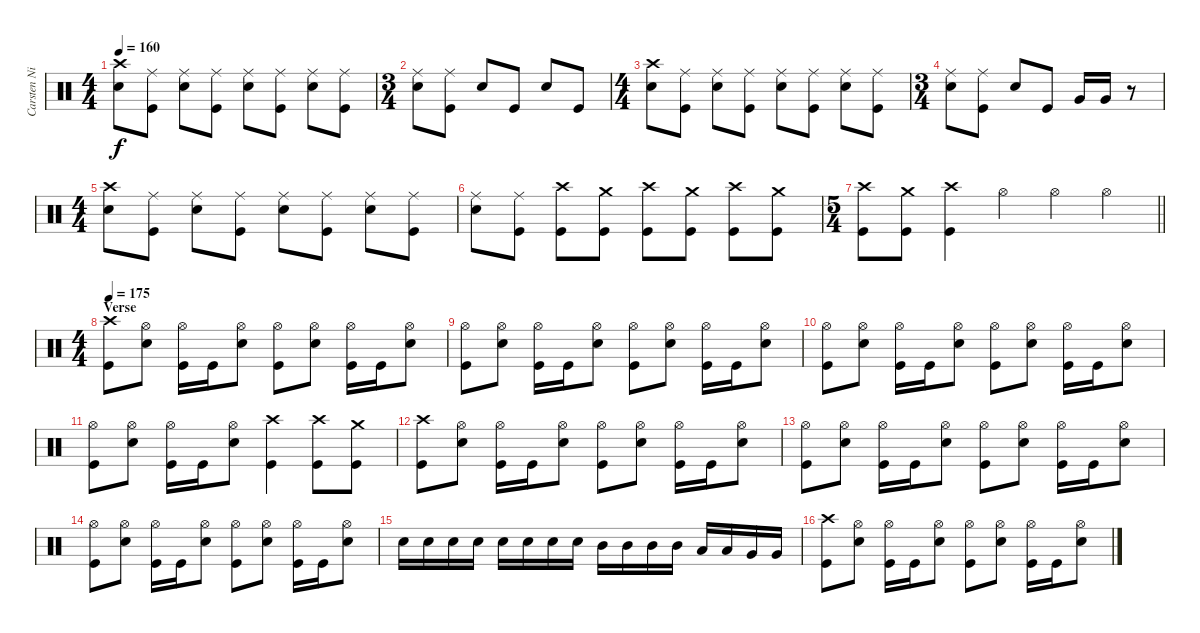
\track ("Carsten Nielsen" "Carsten Ni") {instrument percussion}
\staff {score}
\articulation defaults
\ts (4 4)
\tempo 160
\clef neutral
\ks c
("Crash high (hit)" "Electric Snare (hit)").8{dy f} ("Ride (middle)" "Kick (hit)").8 ("Ride (middle)" "Electric Snare (hit)").8 ("Ride (middle)" "Kick (hit)").8 ("Ride (middle)" "Electric Snare (hit)").8 ("Ride (middle)" "Kick (hit)").8 ("Ride (middle)" "Electric Snare (hit)").8 ("Ride (middle)" "Kick (hit)").8 |
\ts (3 4)
("Ride (middle)" "Electric Snare (hit)").8 ("Ride (middle)" "Kick (hit)").8 "Electric Snare (hit)".8 "Kick (hit)".8 "Electric Snare (hit)".8 "Kick (hit)".8 |
\ts (4 4)
("Crash high (hit)" "Electric Snare (hit)").8 ("Ride (middle)" "Kick (hit)").8 ("Ride (middle)" "Electric Snare (hit)").8 ("Ride (middle)" "Kick (hit)").8 ("Ride (middle)" "Electric Snare (hit)").8 ("Ride (middle)" "Kick (hit)").8 ("Ride (middle)" "Electric Snare (hit)").8 ("Ride (middle)" "Kick (hit)").8 |
\ts (3 4)
("Ride (middle)" "Electric Snare (hit)").8 ("Ride (middle)" "Kick (hit)").8 "Electric Snare (hit)".8 "Kick (hit)".8 "Very Low Tom (hit)".16 "Very Low Tom (hit)".16 r.8 |
\ts (4 4)
("Crash high (hit)" "Electric Snare (hit)").8 ("Ride (middle)" "Kick (hit)").8 ("Ride (middle)" "Electric Snare (hit)").8 ("Ride (middle)" "Kick (hit)").8 ("Ride (middle)" "Electric Snare (hit)").8 ("Ride (middle)" "Kick (hit)").8 ("Ride (middle)" "Electric Snare (hit)").8 ("Ride (middle)" "Kick (hit)").8 |
("Ride (middle)" "Electric Snare (hit)").8 ("Ride (middle)" "Kick (hit)").8 ("Crash high (hit)" "Kick (hit)").8 ("Crash medium (hit)" "Kick (hit)").8 ("Crash high (hit)" "Kick (hit)").8 ("Crash medium (hit)" "Kick (hit)").8 ("Crash high (hit)" "Kick (hit)").8 ("Crash medium (hit)" "Kick (hit)").8 |
\ts (5 4)
\barLineRight lightlight
("Crash high (hit)" "Kick (hit)").8 ("Crash medium (hit)" "Kick (hit)").8 ("Crash high (hit)" "Kick (hit)").4 "Hi-Hat (open)".4 "Hi-Hat (open)".4 "Hi-Hat (open)".4 |
\ts (4 4)
\section ("" "Verse")
\tempo 175
("Crash high (hit)" "Kick (hit)").8 ("Hi-Hat (open)" "Electric Snare (hit)").8 ("Hi-Hat (open)" "Kick (hit)").16 "Kick (hit)".16 ("Hi-Hat (open)" "Electric Snare (hit)").8 ("Hi-Hat (open)" "Kick (hit)").8 ("Hi-Hat (open)" "Electric Snare (hit)").8 ("Hi-Hat (open)" "Kick (hit)").16 "Kick (hit)".16 ("Hi-Hat (open)" "Electric Snare (hit)").8 |
("Hi-Hat (open)" "Kick (hit)").8 ("Hi-Hat (open)" "Electric Snare (hit)").8 ("Hi-Hat (open)" "Kick (hit)").16 "Kick (hit)".16 ("Hi-Hat (open)" "Electric Snare (hit)").8 ("Hi-Hat (open)" "Kick (hit)").8 ("Hi-Hat (open)" "Electric Snare (hit)").8 ("Hi-Hat (open)" "Kick (hit)").16 "Kick (hit)".16 ("Hi-Hat (open)" "Electric Snare (hit)").8 |
("Hi-Hat (open)" "Kick (hit)").8 ("Hi-Hat (open)" "Electric Snare (hit)").8 ("Hi-Hat (open)" "Kick (hit)").16 "Kick (hit)".16 ("Hi-Hat (open)" "Electric Snare (hit)").8 ("Hi-Hat (open)" "Kick (hit)").8 ("Hi-Hat (open)" "Electric Snare (hit)").8 ("Hi-Hat (open)" "Kick (hit)").16 "Kick (hit)".16 ("Hi-Hat (open)" "Electric Snare (hit)").8 |
("Hi-Hat (open)" "Kick (hit)").8 ("Hi-Hat (open)" "Electric Snare (hit)").8 ("Hi-Hat (open)" "Kick (hit)").16 "Kick (hit)".16 ("Hi-Hat (open)" "Electric Snare (hit)").8 ("Crash high (hit)" "Kick (hit)").4 ("Crash high (hit)" "Kick (hit)").8 ("Crash medium (hit)" "Kick (hit)").8 |
("Crash high (hit)" "Kick (hit)").8 ("Hi-Hat (open)" "Electric Snare (hit)").8 ("Hi-Hat (open)" "Kick (hit)").16 "Kick (hit)".16 ("Hi-Hat (open)" "Electric Snare (hit)").8 ("Hi-Hat (open)" "Kick (hit)").8 ("Hi-Hat (open)" "Electric Snare (hit)").8 ("Hi-Hat (open)" "Kick (hit)").16 "Kick (hit)".16 ("Hi-Hat (open)" "Electric Snare (hit)").8 |
("Hi-Hat (open)" "Kick (hit)").8 ("Hi-Hat (open)" "Electric Snare (hit)").8 ("Hi-Hat (open)" "Kick (hit)").16 "Kick (hit)".16 ("Hi-Hat (open)" "Electric Snare (hit)").8 ("Hi-Hat (open)" "Kick (hit)").8 ("Hi-Hat (open)" "Electric Snare (hit)").8 ("Hi-Hat (open)" "Kick (hit)").16 "Kick (hit)".16 ("Hi-Hat (open)" "Electric Snare (hit)").8 |
("Hi-Hat (open)" "Kick (hit)").8 ("Hi-Hat (open)" "Electric Snare (hit)").8 ("Hi-Hat (open)" "Kick (hit)").16 "Kick (hit)".16 ("Hi-Hat (open)" "Electric Snare (hit)").8 ("Hi-Hat (open)" "Kick (hit)").8 ("Hi-Hat (open)" "Electric Snare (hit)").8 ("Hi-Hat (open)" "Kick (hit)").16 "Kick (hit)".16 ("Hi-Hat (open)" "Electric Snare (hit)").8 |
"Electric Snare (hit)".16 "Electric Snare (hit)".16 "Electric Snare (hit)".16 "Electric Snare (hit)".16 "Electric Snare (hit)".16 "Electric Snare (hit)".16 "Electric Snare (hit)".16 "Electric Snare (hit)".16 "Mid Tom (hit)".16 "Mid Tom (hit)".16 "Mid Tom (hit)".16 "Mid Tom (hit)".16 "Low Tom (hit)".16 "Low Tom (hit)".16 "Very Low Tom (hit)".16 "Very Low Tom (hit)".16 |
("Crash high (hit)" "Kick (hit)").8 ("Hi-Hat (open)" "Electric Snare (hit)").8 ("Hi-Hat (open)" "Kick (hit)").16 "Kick (hit)".16 ("Hi-Hat (open)" "Electric Snare (hit)").8 ("Hi-Hat (open)" "Kick (hit)").8 ("Hi-Hat (open)" "Electric Snare (hit)").8 ("Hi-Hat (open)" "Kick (hit)").16 "Kick (hit)".16 ("Hi-Hat (open)" "Electric Snare (hit)").8
